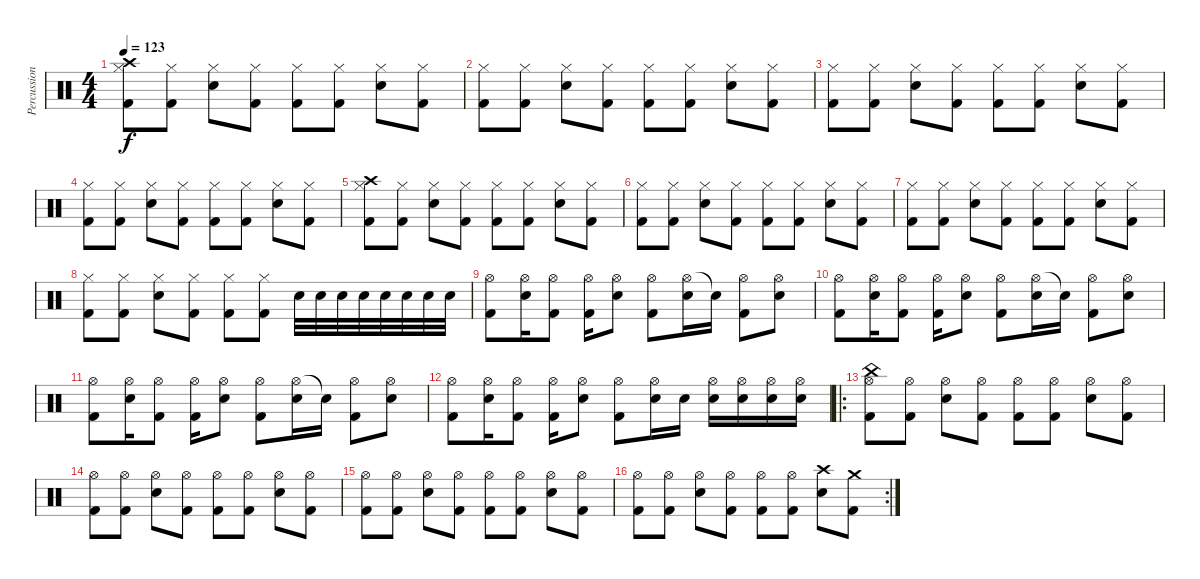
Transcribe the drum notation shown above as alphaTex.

\track ("Percussion" "Percussion") {instrument percussion}
\staff {score}
\articulation defaults
\ts (4 4)
\tempo 123
\clef neutral
\ks c
("Crash high (hit)" "Kick (hit) 2" "Hi-Hat (closed)").8{dy f} ("Kick (hit) 2" "Hi-Hat (closed)").8 ("Electric Snare (hit)" "Hi-Hat (closed)").8 ("Kick (hit) 2" "Hi-Hat (closed)").8 ("Kick (hit) 2" "Hi-Hat (closed)").8 ("Kick (hit) 2" "Hi-Hat (closed)").8 ("Electric Snare (hit)" "Hi-Hat (closed)").8 ("Kick (hit) 2" "Hi-Hat (closed)").8 |
("Kick (hit) 2" "Hi-Hat (closed)").8 ("Kick (hit) 2" "Hi-Hat (closed)").8 ("Electric Snare (hit)" "Hi-Hat (closed)").8 ("Kick (hit) 2" "Hi-Hat (closed)").8 ("Kick (hit) 2" "Hi-Hat (closed)").8 ("Kick (hit) 2" "Hi-Hat (closed)").8 ("Electric Snare (hit)" "Hi-Hat (closed)").8 ("Kick (hit) 2" "Hi-Hat (closed)").8 |
("Kick (hit) 2" "Hi-Hat (closed)").8 ("Kick (hit) 2" "Hi-Hat (closed)").8 ("Electric Snare (hit)" "Hi-Hat (closed)").8 ("Kick (hit) 2" "Hi-Hat (closed)").8 ("Kick (hit) 2" "Hi-Hat (closed)").8 ("Kick (hit) 2" "Hi-Hat (closed)").8 ("Electric Snare (hit)" "Hi-Hat (closed)").8 ("Kick (hit) 2" "Hi-Hat (closed)").8 |
("Kick (hit) 2" "Hi-Hat (closed)").8 ("Kick (hit) 2" "Hi-Hat (closed)").8 ("Electric Snare (hit)" "Hi-Hat (closed)").8 ("Kick (hit) 2" "Hi-Hat (closed)").8 ("Kick (hit) 2" "Hi-Hat (closed)").8 ("Kick (hit) 2" "Hi-Hat (closed)").8 ("Electric Snare (hit)" "Hi-Hat (closed)").8 ("Kick (hit) 2" "Hi-Hat (closed)").8 |
("Crash high (hit)" "Kick (hit) 2" "Hi-Hat (closed)").8 ("Kick (hit) 2" "Hi-Hat (closed)").8 ("Electric Snare (hit)" "Hi-Hat (closed)").8 ("Kick (hit) 2" "Hi-Hat (closed)").8 ("Kick (hit) 2" "Hi-Hat (closed)").8 ("Kick (hit) 2" "Hi-Hat (closed)").8 ("Electric Snare (hit)" "Hi-Hat (closed)").8 ("Kick (hit) 2" "Hi-Hat (closed)").8 |
("Kick (hit) 2" "Hi-Hat (closed)").8 ("Kick (hit) 2" "Hi-Hat (closed)").8 ("Electric Snare (hit)" "Hi-Hat (closed)").8 ("Kick (hit) 2" "Hi-Hat (closed)").8 ("Kick (hit) 2" "Hi-Hat (closed)").8 ("Kick (hit) 2" "Hi-Hat (closed)").8 ("Electric Snare (hit)" "Hi-Hat (closed)").8 ("Kick (hit) 2" "Hi-Hat (closed)").8 |
("Kick (hit) 2" "Hi-Hat (closed)").8 ("Kick (hit) 2" "Hi-Hat (closed)").8 ("Electric Snare (hit)" "Hi-Hat (closed)").8 ("Kick (hit) 2" "Hi-Hat (closed)").8 ("Kick (hit) 2" "Hi-Hat (closed)").8 ("Kick (hit) 2" "Hi-Hat (closed)").8 ("Electric Snare (hit)" "Hi-Hat (closed)").8 ("Kick (hit) 2" "Hi-Hat (closed)").8 |
("Kick (hit) 2" "Hi-Hat (closed)").8 ("Kick (hit) 2" "Hi-Hat (closed)").8 ("Electric Snare (hit)" "Hi-Hat (closed)").8 ("Kick (hit) 2" "Hi-Hat (closed)").8 ("Kick (hit) 2" "Hi-Hat (closed)").8 ("Kick (hit) 2" "Hi-Hat (closed)").8 "Electric Snare (hit)".32 "Electric Snare (hit)".32 "Electric Snare (hit)".32 "Electric Snare (hit)".32 "Electric Snare (hit)".32 "Electric Snare (hit)".32 "Electric Snare (hit)".32 "Electric Snare (hit)".32 |
("Hi-Hat (open)" "Kick (hit) 2").8 ("Hi-Hat (open)" "Electric Snare (hit)").16 ("Hi-Hat (open)" "Kick (hit) 2").8 ("Hi-Hat (open)" "Kick (hit) 2").16 ("Hi-Hat (open)" "Electric Snare (hit)").8 ("Hi-Hat (open)" "Kick (hit) 2").8 ("Hi-Hat (open)" "Electric Snare (hit)").16 "Snare (hit)"{t}.16 ("Hi-Hat (open)" "Kick (hit) 2").8 ("Hi-Hat (open)" "Electric Snare (hit)").8 |
("Hi-Hat (open)" "Kick (hit) 2").8 ("Hi-Hat (open)" "Electric Snare (hit)").16 ("Hi-Hat (open)" "Kick (hit) 2").8 ("Hi-Hat (open)" "Kick (hit) 2").16 ("Hi-Hat (open)" "Electric Snare (hit)").8 ("Hi-Hat (open)" "Kick (hit) 2").8 ("Hi-Hat (open)" "Electric Snare (hit)").16 "Snare (hit)"{t}.16 ("Hi-Hat (open)" "Kick (hit) 2").8 ("Hi-Hat (open)" "Electric Snare (hit)").8 |
("Hi-Hat (open)" "Kick (hit) 2").8 ("Hi-Hat (open)" "Electric Snare (hit)").16 ("Hi-Hat (open)" "Kick (hit) 2").8 ("Hi-Hat (open)" "Kick (hit) 2").16 ("Hi-Hat (open)" "Electric Snare (hit)").8 ("Hi-Hat (open)" "Kick (hit) 2").8 ("Hi-Hat (open)" "Electric Snare (hit)").16 "Snare (hit)"{t}.16 ("Hi-Hat (open)" "Kick (hit) 2").8 ("Hi-Hat (open)" "Electric Snare (hit)").8 |
("Hi-Hat (open)" "Kick (hit) 2").8 ("Hi-Hat (open)" "Electric Snare (hit)").16 ("Hi-Hat (open)" "Kick (hit) 2").8 ("Hi-Hat (open)" "Kick (hit) 2").16 ("Hi-Hat (open)" "Electric Snare (hit)").8 ("Hi-Hat (open)" "Kick (hit) 2").8 ("Hi-Hat (open)" "Electric Snare (hit)").16 "Electric Snare (hit)".16 ("Hi-Hat (open)" "Electric Snare (hit)").16 ("Hi-Hat (open)" "Electric Snare (hit)").16 ("Hi-Hat (open)" "Electric Snare (hit)").16 ("Hi-Hat (open)" "Electric Snare (hit)").16 |
\ro
("Hi-Hat (open)" "China (hit)" "Kick (hit) 2").8 ("Hi-Hat (open)" "Kick (hit) 2").8 ("Hi-Hat (open)" "Electric Snare (hit)").8 ("Hi-Hat (open)" "Kick (hit) 2").8 ("Hi-Hat (open)" "Kick (hit) 2").8 ("Hi-Hat (open)" "Kick (hit) 2").8 ("Hi-Hat (open)" "Electric Snare (hit)").8 ("Hi-Hat (open)" "Kick (hit) 2").8 |
("Hi-Hat (open)" "Kick (hit) 2").8 ("Hi-Hat (open)" "Kick (hit) 2").8 ("Hi-Hat (open)" "Electric Snare (hit)").8 ("Hi-Hat (open)" "Kick (hit) 2").8 ("Hi-Hat (open)" "Kick (hit) 2").8 ("Hi-Hat (open)" "Kick (hit) 2").8 ("Hi-Hat (open)" "Electric Snare (hit)").8 ("Hi-Hat (open)" "Kick (hit) 2").8 |
("Hi-Hat (open)" "Kick (hit) 2").8 ("Hi-Hat (open)" "Kick (hit) 2").8 ("Hi-Hat (open)" "Electric Snare (hit)").8 ("Hi-Hat (open)" "Kick (hit) 2").8 ("Hi-Hat (open)" "Kick (hit) 2").8 ("Hi-Hat (open)" "Kick (hit) 2").8 ("Hi-Hat (open)" "Electric Snare (hit)").8 ("Hi-Hat (open)" "Kick (hit) 2").8 |
\rc 2
("Hi-Hat (open)" "Kick (hit) 2").8 ("Hi-Hat (open)" "Kick (hit) 2").8 ("Hi-Hat (open)" "Electric Snare (hit)").8 ("Hi-Hat (open)" "Kick (hit) 2").8 ("Hi-Hat (open)" "Kick (hit) 2").8 ("Hi-Hat (open)" "Kick (hit) 2").8 ("Crash high (hit)" "Electric Snare (hit)").8 ("Crash medium (hit)" "Kick (hit) 2").8
